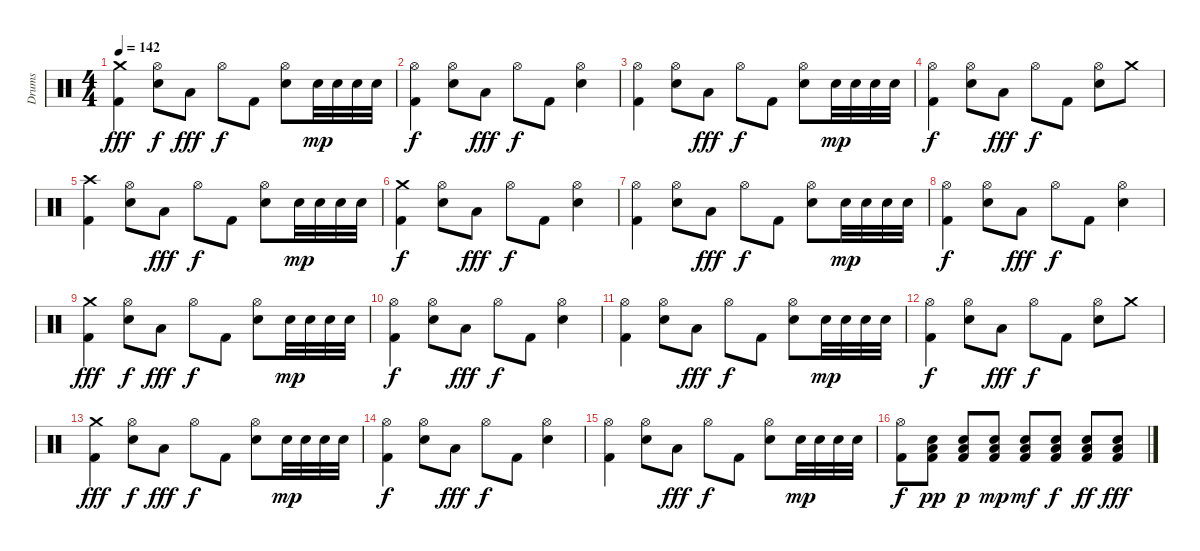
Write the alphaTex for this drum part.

\track ("Drums" "Drums") {instrument percussion}
\staff {score}
\articulation defaults
\ts (4 4)
\tempo 142
\clef neutral
\ks c
("Crash medium (hit)" "Kick (hit) 2").4{dy fff volume 11} ("Hi-Hat (open)" "Snare (hit) 2").8{dy f} "Low Tom (hit)".8{dy fff} "Hi-Hat (open)".8{dy f} "Kick (hit) 2".8 ("Hi-Hat (open)" "Snare (hit) 2").8 "Snare (hit) 2".32{dy mp} "Snare (hit) 2".32 "Snare (hit) 2".32 "Snare (hit) 2".32 |
("Hi-Hat (open)" "Kick (hit) 2").4{dy f volume 11} ("Hi-Hat (open)" "Snare (hit) 2").8 "Low Tom (hit)".8{dy fff} "Hi-Hat (open)".8{dy f} "Kick (hit) 2".8 ("Hi-Hat (open)" "Snare (hit) 2").4 |
("Hi-Hat (open)" "Kick (hit) 2").4{volume 11} ("Hi-Hat (open)" "Snare (hit) 2").8 "Low Tom (hit)".8{dy fff} "Hi-Hat (open)".8{dy f} "Kick (hit) 2".8 ("Hi-Hat (open)" "Snare (hit) 2").8 "Snare (hit) 2".32{dy mp} "Snare (hit) 2".32 "Snare (hit) 2".32 "Snare (hit) 2".32 |
("Hi-Hat (open)" "Kick (hit) 2").4{dy f volume 11} ("Hi-Hat (open)" "Snare (hit) 2").8 "Low Tom (hit)".8{dy fff} "Hi-Hat (open)".8{dy f} "Kick (hit) 2".8 ("Hi-Hat (open)" "Snare (hit) 2").8 "Crash medium (hit)".8 |
("Crash high (hit)" "Kick (hit) 2").4{volume 11} ("Hi-Hat (open)" "Snare (hit) 2").8 "Low Tom (hit)".8{dy fff} "Hi-Hat (open)".8{dy f} "Kick (hit) 2".8 ("Hi-Hat (open)" "Snare (hit) 2").8 "Snare (hit) 2".32{dy mp} "Snare (hit) 2".32 "Snare (hit) 2".32 "Snare (hit) 2".32 |
("Crash medium (hit)" "Kick (hit) 2").4{dy f volume 11} ("Hi-Hat (open)" "Snare (hit) 2").8 "Low Tom (hit)".8{dy fff} "Hi-Hat (open)".8{dy f} "Kick (hit) 2".8 ("Hi-Hat (open)" "Snare (hit) 2").4 |
("Hi-Hat (open)" "Kick (hit) 2").4{volume 11} ("Hi-Hat (open)" "Snare (hit) 2").8 "Low Tom (hit)".8{dy fff} "Hi-Hat (open)".8{dy f} "Kick (hit) 2".8 ("Hi-Hat (open)" "Snare (hit) 2").8 "Snare (hit) 2".32{dy mp} "Snare (hit) 2".32 "Snare (hit) 2".32 "Snare (hit) 2".32 |
("Hi-Hat (open)" "Kick (hit) 2").4{dy f volume 11} ("Hi-Hat (open)" "Snare (hit) 2").8 "Low Tom (hit)".8{dy fff} "Hi-Hat (open)".8{dy f} "Kick (hit) 2".8 ("Hi-Hat (open)" "Snare (hit) 2").4 |
("Crash medium (hit)" "Kick (hit) 2").4{dy fff volume 11} ("Hi-Hat (open)" "Snare (hit) 2").8{dy f} "Low Tom (hit)".8{dy fff} "Hi-Hat (open)".8{dy f} "Kick (hit) 2".8 ("Hi-Hat (open)" "Snare (hit) 2").8 "Snare (hit) 2".32{dy mp} "Snare (hit) 2".32 "Snare (hit) 2".32 "Snare (hit) 2".32 |
("Hi-Hat (open)" "Kick (hit) 2").4{dy f volume 11} ("Hi-Hat (open)" "Snare (hit) 2").8 "Low Tom (hit)".8{dy fff} "Hi-Hat (open)".8{dy f} "Kick (hit) 2".8 ("Hi-Hat (open)" "Snare (hit) 2").4 |
("Hi-Hat (open)" "Kick (hit) 2").4{volume 11} ("Hi-Hat (open)" "Snare (hit) 2").8 "Low Tom (hit)".8{dy fff} "Hi-Hat (open)".8{dy f} "Kick (hit) 2".8 ("Hi-Hat (open)" "Snare (hit) 2").8 "Snare (hit) 2".32{dy mp} "Snare (hit) 2".32 "Snare (hit) 2".32 "Snare (hit) 2".32 |
("Hi-Hat (open)" "Kick (hit) 2").4{dy f volume 11} ("Hi-Hat (open)" "Snare (hit) 2").8 "Low Tom (hit)".8{dy fff} "Hi-Hat (open)".8{dy f} "Kick (hit) 2".8 ("Hi-Hat (open)" "Snare (hit) 2").8 "Crash medium (hit)".8 |
("Crash medium (hit)" "Kick (hit) 2").4{dy fff volume 11} ("Hi-Hat (open)" "Snare (hit) 2").8{dy f} "Low Tom (hit)".8{dy fff} "Hi-Hat (open)".8{dy f} "Kick (hit) 2".8 ("Hi-Hat (open)" "Snare (hit) 2").8 "Snare (hit) 2".32{dy mp} "Snare (hit) 2".32 "Snare (hit) 2".32 "Snare (hit) 2".32 |
("Hi-Hat (open)" "Kick (hit) 2").4{dy f volume 11} ("Hi-Hat (open)" "Snare (hit) 2").8 "Low Tom (hit)".8{dy fff} "Hi-Hat (open)".8{dy f} "Kick (hit) 2".8 ("Hi-Hat (open)" "Snare (hit) 2").4 |
("Hi-Hat (open)" "Kick (hit) 2").4{volume 11} ("Hi-Hat (open)" "Snare (hit) 2").8 "Low Tom (hit)".8{dy fff} "Hi-Hat (open)".8{dy f} "Kick (hit) 2".8 ("Hi-Hat (open)" "Snare (hit) 2").8 "Snare (hit) 2".32{dy mp} "Snare (hit) 2".32 "Snare (hit) 2".32 "Snare (hit) 2".32 |
("Hi-Hat (open)" "Kick (hit) 2").8{dy f volume 11} ("Low Tom (hit)" "Snare (hit) 2" "Kick (hit) 2").8{dy pp} ("Low Tom (hit)" "Snare (hit) 2" "Kick (hit) 2").8{dy p} ("Low Tom (hit)" "Snare (hit) 2" "Kick (hit) 2").8{dy mp} ("Low Tom (hit)" "Snare (hit) 2" "Kick (hit) 2").8{dy mf} ("Low Tom (hit)" "Snare (hit) 2" "Kick (hit) 2").8{dy f} ("Low Tom (hit)" "Snare (hit) 2" "Kick (hit) 2").8{dy ff} ("Low Tom (hit)" "Snare (hit) 2" "Kick (hit) 2").8{dy fff}
